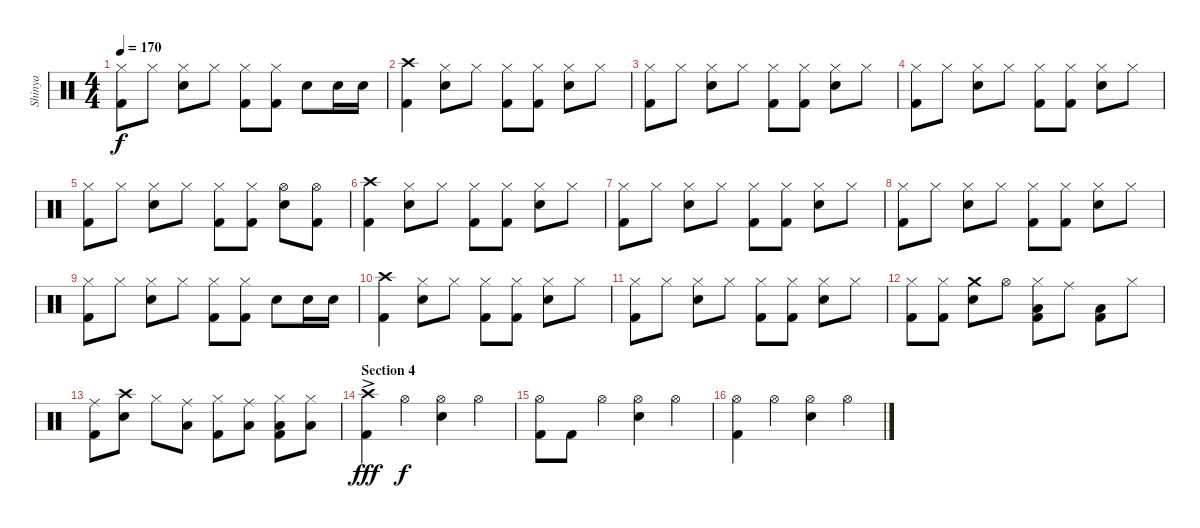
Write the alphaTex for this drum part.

\track ("Shinya" "Shinya") {instrument percussion}
\staff {score}
\articulation defaults
\ts (4 4)
\tempo 170
\clef neutral
\ks c
("Hi-Hat (closed)" "Kick (hit) 2").8{dy f} "Hi-Hat (closed)".8 ("Hi-Hat (closed)" "Snare (hit) 2").8 "Hi-Hat (closed)".8 ("Hi-Hat (closed)" "Kick (hit) 2").8 ("Hi-Hat (closed)" "Kick (hit) 2").8 "Snare (hit) 2".8 "Snare (hit) 2".16 "Snare (hit) 2".16 |
("Crash high (hit)" "Kick (hit) 2").4 ("Hi-Hat (closed)" "Snare (hit) 2").8 "Hi-Hat (closed)".8 ("Hi-Hat (closed)" "Kick (hit) 2").8 ("Hi-Hat (closed)" "Kick (hit) 2").8 ("Hi-Hat (closed)" "Snare (hit) 2").8 "Hi-Hat (closed)".8 |
("Hi-Hat (closed)" "Kick (hit) 2").8 "Hi-Hat (closed)".8 ("Hi-Hat (closed)" "Snare (hit) 2").8 "Hi-Hat (closed)".8 ("Hi-Hat (closed)" "Kick (hit) 2").8 ("Hi-Hat (closed)" "Kick (hit) 2").8 ("Hi-Hat (closed)" "Snare (hit) 2").8 "Hi-Hat (closed)".8 |
("Hi-Hat (closed)" "Kick (hit) 2").8 "Hi-Hat (closed)".8 ("Hi-Hat (closed)" "Snare (hit) 2").8 "Hi-Hat (closed)".8 ("Hi-Hat (closed)" "Kick (hit) 2").8 ("Hi-Hat (closed)" "Kick (hit) 2").8 ("Hi-Hat (closed)" "Snare (hit) 2").8 "Hi-Hat (closed)".8 |
("Hi-Hat (closed)" "Kick (hit) 2").8 "Hi-Hat (closed)".8 ("Hi-Hat (closed)" "Snare (hit) 2").8 "Hi-Hat (closed)".8 ("Hi-Hat (closed)" "Kick (hit) 2").8 ("Hi-Hat (closed)" "Kick (hit) 2").8 ("Hi-Hat (open)" "Snare (hit) 2").8 ("Hi-Hat (open)" "Kick (hit) 2").8 |
("Crash high (hit)" "Kick (hit) 2").4 ("Hi-Hat (closed)" "Snare (hit) 2").8 "Hi-Hat (closed)".8 ("Hi-Hat (closed)" "Kick (hit) 2").8 ("Hi-Hat (closed)" "Kick (hit) 2").8 ("Hi-Hat (closed)" "Snare (hit) 2").8 "Hi-Hat (closed)".8 |
("Hi-Hat (closed)" "Kick (hit) 2").8 "Hi-Hat (closed)".8 ("Hi-Hat (closed)" "Snare (hit) 2").8 "Hi-Hat (closed)".8 ("Hi-Hat (closed)" "Kick (hit) 2").8 ("Hi-Hat (closed)" "Kick (hit) 2").8 ("Hi-Hat (closed)" "Snare (hit) 2").8 "Hi-Hat (closed)".8 |
("Hi-Hat (closed)" "Kick (hit) 2").8 "Hi-Hat (closed)".8 ("Hi-Hat (closed)" "Snare (hit) 2").8 "Hi-Hat (closed)".8 ("Hi-Hat (closed)" "Kick (hit) 2").8 ("Hi-Hat (closed)" "Kick (hit) 2").8 ("Hi-Hat (closed)" "Snare (hit) 2").8 "Hi-Hat (closed)".8 |
("Hi-Hat (closed)" "Kick (hit) 2").8 "Hi-Hat (closed)".8 ("Hi-Hat (closed)" "Snare (hit) 2").8 "Hi-Hat (closed)".8 ("Hi-Hat (closed)" "Kick (hit) 2").8 ("Hi-Hat (closed)" "Kick (hit) 2").8 "Snare (hit) 2".8 "Snare (hit) 2".16 "Snare (hit) 2".16 |
("Crash high (hit)" "Kick (hit) 2").4 ("Hi-Hat (closed)" "Snare (hit) 2").8 "Hi-Hat (closed)".8 ("Hi-Hat (closed)" "Kick (hit) 2").8 ("Hi-Hat (closed)" "Kick (hit) 2").8 ("Hi-Hat (closed)" "Snare (hit) 2").8 "Hi-Hat (closed)".8 |
("Hi-Hat (closed)" "Kick (hit) 2").8 "Hi-Hat (closed)".8 ("Hi-Hat (closed)" "Snare (hit) 2").8 "Hi-Hat (closed)".8 ("Hi-Hat (closed)" "Kick (hit) 2").8 ("Hi-Hat (closed)" "Kick (hit) 2").8 ("Hi-Hat (closed)" "Snare (hit) 2").8 "Hi-Hat (closed)".8 |
("Hi-Hat (closed)" "Kick (hit) 2").8 ("Hi-Hat (closed)" "Kick (hit) 2").8 ("Crash medium (hit)" "Snare (hit) 2").8 "Hi-Hat (open)".8 ("Hi-Hat (closed)" "Low Tom (hit)" "Kick (hit) 2").8 "Ride (middle)".8 ("Low Floor Tom (hit)" "Kick (hit) 2").8 "Hi-Hat (closed)".8 |
("Ride (middle)" "Kick (hit) 2").8 ("Crash high (hit)" "Snare (hit) 2").8 "Hi-Hat (closed)".8 ("Ride (middle)" "Low Tom (hit)").8 ("Hi-Hat (closed)" "Kick (hit) 2").8 ("Ride (middle)" "Low Floor Tom (hit)").8 ("Hi-Hat (closed)" "Low Tom (hit)" "Kick (hit) 2").8 ("Hi-Hat (closed)" "Low Floor Tom (hit)").8 |
\section ("" "Section 4")
("Crash high (hit)"{ac} "Kick (hit) 2").4{dy fff} "Hi-Hat (open)".4{dy f} ("Hi-Hat (open)" "Snare (hit) 2").4 "Hi-Hat (open)".4 |
("Hi-Hat (open)" "Kick (hit) 2").8 "Kick (hit) 2".8 "Hi-Hat (open)".4 ("Hi-Hat (open)" "Snare (hit) 2").4 "Hi-Hat (open)".4 |
("Hi-Hat (open)" "Kick (hit) 2").4 "Hi-Hat (open)".4 ("Hi-Hat (open)" "Snare (hit) 2").4 "Hi-Hat (open)".4
